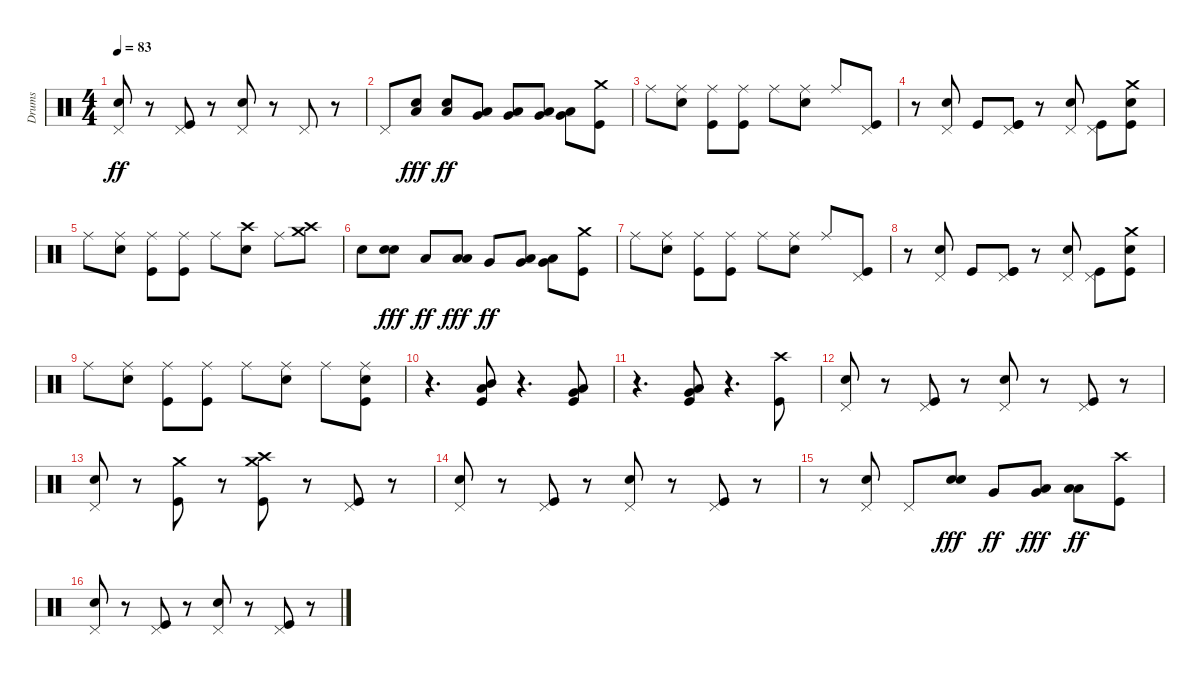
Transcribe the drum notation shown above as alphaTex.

\track ("Drums" "Drums") {instrument percussion}
\staff {score}
\articulation defaults
\ts (4 4)
\tempo 83
\clef neutral
\ks c
("Pedal Hi-Hat (hit)" "Snare (hit) 2").8{dy ff} r.8 ("Pedal Hi-Hat (hit)" "Kick (hit)").8 r.8 ("Snare (hit) 2" "Pedal Hi-Hat (hit)").8 r.8 "Pedal Hi-Hat (hit)".8 r.8 |
"Pedal Hi-Hat (hit)".8 ("Snare (hit) 2" "Low Tom (hit)").8{dy fff} ("Snare (hit) 2" "Low Tom (hit)").8{dy ff} ("Very Low Tom (hit)" "Low Tom (hit)").8 ("Very Low Tom (hit)" "Low Tom (hit)").8 ("Low Floor Tom (hit)" "Very Low Tom (hit)").8 ("Very Low Tom (hit)" "Low Floor Tom (hit)").8 ("Crash medium (hit)" "Kick (hit)").8 |
"Ride (middle)".8 ("Ride (middle)" "Snare (hit) 2").8 ("Kick (hit)" "Ride (middle)").8 ("Ride (middle)" "Kick (hit)").8 "Ride (middle)".8 ("Snare (hit) 2" "Ride (middle)").8 "Ride (middle)".8 ("Pedal Hi-Hat (hit)" "Kick (hit)").8 |
r.8 ("Snare (hit) 2" "Pedal Hi-Hat (hit)").8 "Kick (hit)".8 ("Kick (hit)" "Kick (hit)" "Pedal Hi-Hat (hit)").8 r.8 ("Snare (hit) 2" "Pedal Hi-Hat (hit)").8 ("Pedal Hi-Hat (hit)" "Kick (hit)").8 ("Snare (hit) 2" "Crash medium (hit)" "Kick (hit)").8 |
"Ride (middle)".8 ("Ride (middle)" "Snare (hit) 2").8 ("Ride (middle)" "Kick (hit)").8 ("Kick (hit)" "Ride (middle)").8 "Ride (middle)".8 ("Snare (hit) 2" "Crash high (hit)").8 "Ride (middle)".8 ("Crash high (hit)" "Crash medium (hit)").8 |
"Snare (hit) 2".8 ("Snare (hit) 2" "Snare (hit) 2").8{dy fff} "Low Tom (hit)".8{dy ff} ("Low Tom (hit)" "Low Tom (hit)").8{dy fff} "Very Low Tom (hit)".8{dy ff} ("Low Floor Tom (hit)" "Very Low Tom (hit)").8 ("Low Floor Tom (hit)" "Very Low Tom (hit)").8 ("Crash medium (hit)" "Kick (hit)").8 |
"Ride (middle)".8 ("Ride (middle)" "Snare (hit) 2").8 ("Ride (middle)" "Kick (hit)").8 ("Ride (middle)" "Kick (hit)").8 "Ride (middle)".8 ("Ride (middle)" "Snare (hit) 2").8 "Ride (middle)".8 ("Pedal Hi-Hat (hit)" "Kick (hit)").8 |
r.8 ("Snare (hit) 2" "Pedal Hi-Hat (hit)").8 "Kick (hit)".8 ("Kick (hit)" "Kick (hit)" "Pedal Hi-Hat (hit)").8 r.8 ("Pedal Hi-Hat (hit)" "Snare (hit) 2").8 ("Pedal Hi-Hat (hit)" "Kick (hit)").8 ("Snare (hit) 2" "Crash medium (hit)" "Kick (hit)").8 |
"Ride (middle)".8 ("Ride (middle)" "Snare (hit) 2").8 ("Ride (middle)" "Kick (hit)").8 ("Ride (middle)" "Kick (hit)").8 "Ride (middle)".8 ("Ride (middle)" "Snare (hit) 2").8 "Ride (middle)".8 ("Snare (hit) 2" "Kick (hit)" "Ride (middle)").8 |
r.4{d} ("Mid Tom (hit)" "Low Tom (hit)" "Kick (hit)").8 r.4{d} ("Low Tom (hit)" "Kick (hit)" "Very Low Tom (hit)").8 |
r.4{d} ("Kick (hit)" "Very Low Tom (hit)" "Low Floor Tom (hit)").8 r.4{d} ("Kick (hit)" "Crash high (hit)").8 |
("Snare (hit) 2" "Pedal Hi-Hat (hit)").8 r.8 ("Kick (hit)" "Pedal Hi-Hat (hit)").8 r.8 ("Pedal Hi-Hat (hit)" "Snare (hit) 2").8 r.8 ("Kick (hit)" "Pedal Hi-Hat (hit)").8 r.8 |
("Snare (hit) 2" "Pedal Hi-Hat (hit)").8 r.8 ("Crash medium (hit)" "Kick (hit)").8 r.8 ("Crash high (hit)" "Crash medium (hit)" "Kick (hit)").8 r.8 ("Pedal Hi-Hat (hit)" "Kick (hit)").8 r.8 |
("Pedal Hi-Hat (hit)" "Snare (hit) 2").8 r.8 ("Pedal Hi-Hat (hit)" "Kick (hit)").8 r.8 ("Snare (hit) 2" "Pedal Hi-Hat (hit)").8 r.8 ("Kick (hit)" "Pedal Hi-Hat (hit)").8 r.8 |
r.8 ("Snare (hit) 2" "Pedal Hi-Hat (hit)").8 "Pedal Hi-Hat (hit)".8 ("Snare (hit) 2" "Snare (hit) 2").8{dy fff} "Very Low Tom (hit)".8{dy ff} ("Very Low Tom (hit)" "Low Floor Tom (hit)").8{dy fff} ("Low Floor Tom (hit)" "Low Floor Tom (hit)").8{dy ff} ("Kick (hit)" "Crash high (hit)").8 |
("Pedal Hi-Hat (hit)" "Snare (hit) 2").8 r.8 ("Kick (hit)" "Pedal Hi-Hat (hit)").8 r.8 ("Snare (hit) 2" "Pedal Hi-Hat (hit)").8 r.8 ("Kick (hit)" "Pedal Hi-Hat (hit)").8 r.8
